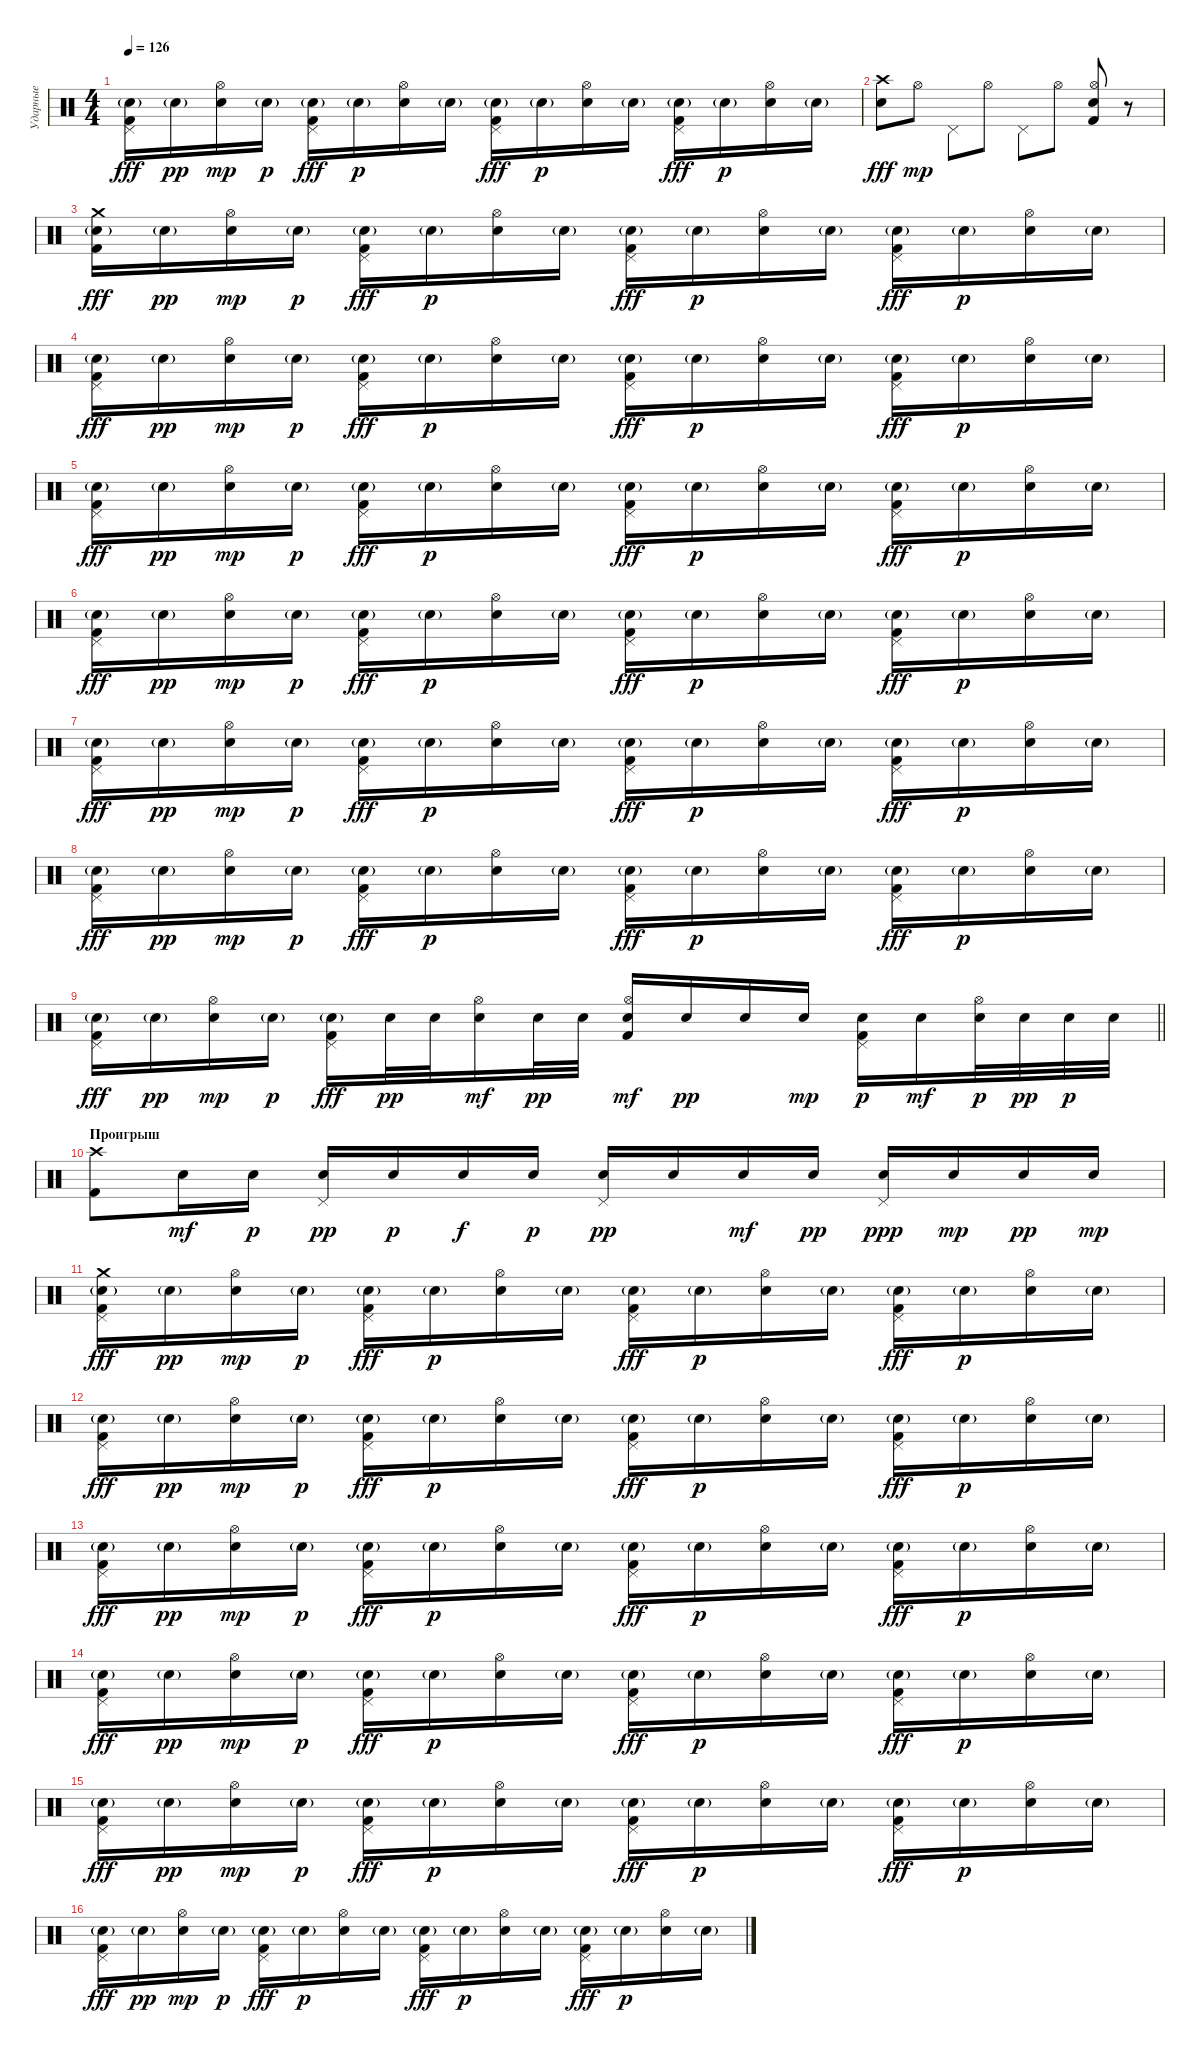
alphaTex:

\track ("Ударные" "Ударные") {instrument percussion}
\staff {score}
\articulation defaults
\ts (4 4)
\tempo 126
\clef neutral
\ks c
("Pedal Hi-Hat (hit)" "Snare (hit) 2"{g} "Kick (hit) 2").16{dy fff} "Snare (hit) 2"{g}.16{dy pp} ("Hi-Hat (open)" "Electric Snare (hit)").16{dy mp} "Snare (hit) 2"{g}.16{dy p} ("Pedal Hi-Hat (hit)" "Snare (hit) 2"{g} "Kick (hit) 2").16{dy fff} "Snare (hit) 2"{g}.16{dy p} ("Hi-Hat (open)" "Electric Snare (hit)").16 "Snare (hit) 2"{g}.16 ("Pedal Hi-Hat (hit)" "Snare (hit) 2"{g} "Kick (hit) 2").16{dy fff} "Snare (hit) 2"{g}.16{dy p} ("Hi-Hat (open)" "Electric Snare (hit)").16 "Snare (hit) 2"{g}.16 ("Pedal Hi-Hat (hit)" "Snare (hit) 2"{g} "Kick (hit) 2").16{dy fff} "Snare (hit) 2"{g}.16{dy p} ("Hi-Hat (open)" "Electric Snare (hit)").16 "Snare (hit) 2"{g}.16 |
("Crash high (hit)" "Electric Snare (hit)").8{dy fff} "Hi-Hat (open)".8{dy mp} "Pedal Hi-Hat (hit)".8 "Hi-Hat (open)".8 "Pedal Hi-Hat (hit)".8 "Hi-Hat (open)".8 ("Hi-Hat (open)" "Electric Snare (hit)" "Kick (hit) 2").8 r.8 |
("Crash medium (hit)" "Snare (hit) 2"{g} "Kick (hit) 2").16{dy fff} "Snare (hit) 2"{g}.16{dy pp} ("Hi-Hat (open)" "Electric Snare (hit)").16{dy mp} "Snare (hit) 2"{g}.16{dy p} ("Pedal Hi-Hat (hit)" "Snare (hit) 2"{g} "Kick (hit) 2").16{dy fff} "Snare (hit) 2"{g}.16{dy p} ("Hi-Hat (open)" "Electric Snare (hit)").16 "Snare (hit) 2"{g}.16 ("Pedal Hi-Hat (hit)" "Snare (hit) 2"{g} "Kick (hit) 2").16{dy fff} "Snare (hit) 2"{g}.16{dy p} ("Hi-Hat (open)" "Electric Snare (hit)").16 "Snare (hit) 2"{g}.16 ("Pedal Hi-Hat (hit)" "Snare (hit) 2"{g} "Kick (hit) 2").16{dy fff} "Snare (hit) 2"{g}.16{dy p} ("Hi-Hat (open)" "Electric Snare (hit)").16 "Snare (hit) 2"{g}.16 |
("Pedal Hi-Hat (hit)" "Snare (hit) 2"{g} "Kick (hit) 2").16{dy fff} "Snare (hit) 2"{g}.16{dy pp} ("Hi-Hat (open)" "Electric Snare (hit)").16{dy mp} "Snare (hit) 2"{g}.16{dy p} ("Pedal Hi-Hat (hit)" "Snare (hit) 2"{g} "Kick (hit) 2").16{dy fff} "Snare (hit) 2"{g}.16{dy p} ("Hi-Hat (open)" "Electric Snare (hit)").16 "Snare (hit) 2"{g}.16 ("Pedal Hi-Hat (hit)" "Snare (hit) 2"{g} "Kick (hit) 2").16{dy fff} "Snare (hit) 2"{g}.16{dy p} ("Hi-Hat (open)" "Electric Snare (hit)").16 "Snare (hit) 2"{g}.16 ("Pedal Hi-Hat (hit)" "Snare (hit) 2"{g} "Kick (hit) 2").16{dy fff} "Snare (hit) 2"{g}.16{dy p} ("Hi-Hat (open)" "Electric Snare (hit)").16 "Snare (hit) 2"{g}.16 |
("Pedal Hi-Hat (hit)" "Snare (hit) 2"{g} "Kick (hit) 2").16{dy fff} "Snare (hit) 2"{g}.16{dy pp} ("Hi-Hat (open)" "Electric Snare (hit)").16{dy mp} "Snare (hit) 2"{g}.16{dy p} ("Pedal Hi-Hat (hit)" "Snare (hit) 2"{g} "Kick (hit) 2").16{dy fff} "Snare (hit) 2"{g}.16{dy p} ("Hi-Hat (open)" "Electric Snare (hit)").16 "Snare (hit) 2"{g}.16 ("Pedal Hi-Hat (hit)" "Snare (hit) 2"{g} "Kick (hit) 2").16{dy fff} "Snare (hit) 2"{g}.16{dy p} ("Hi-Hat (open)" "Electric Snare (hit)").16 "Snare (hit) 2"{g}.16 ("Pedal Hi-Hat (hit)" "Snare (hit) 2"{g} "Kick (hit) 2").16{dy fff} "Snare (hit) 2"{g}.16{dy p} ("Hi-Hat (open)" "Electric Snare (hit)").16 "Snare (hit) 2"{g}.16 |
("Pedal Hi-Hat (hit)" "Snare (hit) 2"{g} "Kick (hit) 2").16{dy fff} "Snare (hit) 2"{g}.16{dy pp} ("Hi-Hat (open)" "Electric Snare (hit)").16{dy mp} "Snare (hit) 2"{g}.16{dy p} ("Pedal Hi-Hat (hit)" "Snare (hit) 2"{g} "Kick (hit) 2").16{dy fff} "Snare (hit) 2"{g}.16{dy p} ("Hi-Hat (open)" "Electric Snare (hit)").16 "Snare (hit) 2"{g}.16 ("Pedal Hi-Hat (hit)" "Snare (hit) 2"{g} "Kick (hit) 2").16{dy fff} "Snare (hit) 2"{g}.16{dy p} ("Hi-Hat (open)" "Electric Snare (hit)").16 "Snare (hit) 2"{g}.16 ("Pedal Hi-Hat (hit)" "Snare (hit) 2"{g} "Kick (hit) 2").16{dy fff} "Snare (hit) 2"{g}.16{dy p} ("Hi-Hat (open)" "Electric Snare (hit)").16 "Snare (hit) 2"{g}.16 |
("Pedal Hi-Hat (hit)" "Snare (hit) 2"{g} "Kick (hit) 2").16{dy fff} "Snare (hit) 2"{g}.16{dy pp} ("Hi-Hat (open)" "Electric Snare (hit)").16{dy mp} "Snare (hit) 2"{g}.16{dy p} ("Pedal Hi-Hat (hit)" "Snare (hit) 2"{g} "Kick (hit) 2").16{dy fff} "Snare (hit) 2"{g}.16{dy p} ("Hi-Hat (open)" "Electric Snare (hit)").16 "Snare (hit) 2"{g}.16 ("Pedal Hi-Hat (hit)" "Snare (hit) 2"{g} "Kick (hit) 2").16{dy fff} "Snare (hit) 2"{g}.16{dy p} ("Hi-Hat (open)" "Electric Snare (hit)").16 "Snare (hit) 2"{g}.16 ("Pedal Hi-Hat (hit)" "Snare (hit) 2"{g} "Kick (hit) 2").16{dy fff} "Snare (hit) 2"{g}.16{dy p} ("Hi-Hat (open)" "Electric Snare (hit)").16 "Snare (hit) 2"{g}.16 |
("Pedal Hi-Hat (hit)" "Snare (hit) 2"{g} "Kick (hit) 2").16{dy fff} "Snare (hit) 2"{g}.16{dy pp} ("Hi-Hat (open)" "Electric Snare (hit)").16{dy mp} "Snare (hit) 2"{g}.16{dy p} ("Pedal Hi-Hat (hit)" "Snare (hit) 2"{g} "Kick (hit) 2").16{dy fff} "Snare (hit) 2"{g}.16{dy p} ("Hi-Hat (open)" "Electric Snare (hit)").16 "Snare (hit) 2"{g}.16 ("Pedal Hi-Hat (hit)" "Snare (hit) 2"{g} "Kick (hit) 2").16{dy fff} "Snare (hit) 2"{g}.16{dy p} ("Hi-Hat (open)" "Electric Snare (hit)").16 "Snare (hit) 2"{g}.16 ("Pedal Hi-Hat (hit)" "Snare (hit) 2"{g} "Kick (hit) 2").16{dy fff} "Snare (hit) 2"{g}.16{dy p} ("Hi-Hat (open)" "Electric Snare (hit)").16 "Snare (hit) 2"{g}.16 |
\barLineRight lightlight
("Pedal Hi-Hat (hit)" "Snare (hit) 2"{g} "Kick (hit) 2").16{dy fff} "Snare (hit) 2"{g}.16{dy pp} ("Hi-Hat (open)" "Electric Snare (hit)").16{dy mp} "Snare (hit) 2"{g}.16{dy p} ("Pedal Hi-Hat (hit)" "Snare (hit) 2"{g} "Kick (hit) 2").16{dy fff} "Electric Snare (hit)".32{dy pp} "Snare (hit) 2".32 ("Hi-Hat (open)" "Electric Snare (hit)").16{dy mf} "Electric Snare (hit)".32{dy pp} "Snare (hit) 2".32 ("Hi-Hat (open)" "Electric Snare (hit)" "Kick (hit) 2").16{dy mf} "Electric Snare (hit)".16{dy pp} "Electric Snare (hit)".16 "Electric Snare (hit)".16{dy mp} ("Pedal Hi-Hat (hit)" "Electric Snare (hit)" "Kick (hit) 2").16{dy p} "Electric Snare (hit)".16{dy mf} ("Hi-Hat (open)" "Electric Snare (hit)").32{dy p} "Electric Snare (hit)".32{dy pp} "Electric Snare (hit)".32{dy p} "Electric Snare (hit)".32 |
\section ("" "Проигрыш")
("Crash high (hit)" "Kick (hit) 2").8 "Electric Snare (hit)".16{dy mf} "Snare (hit) 2".16{dy p} ("Pedal Hi-Hat (hit)" "Snare (hit) 2").16{dy pp} "Snare (hit) 2".16{dy p} "Electric Snare (hit)".16{dy f} "Snare (hit) 2".16{dy p} ("Pedal Hi-Hat (hit)" "Snare (hit) 2").16{dy pp} "Snare (hit) 2".16 "Electric Snare (hit)".16{dy mf} "Snare (hit) 2".16{dy pp} ("Pedal Hi-Hat (hit)" "Snare (hit) 2").16{dy ppp} "Snare (hit) 2".16{dy mp} "Electric Snare (hit)".16{dy pp} "Snare (hit) 2".16{dy mp} |
("Crash medium (hit)" "Pedal Hi-Hat (hit)" "Snare (hit) 2"{g} "Kick (hit) 2").16{dy fff} "Snare (hit) 2"{g}.16{dy pp} ("Hi-Hat (open)" "Electric Snare (hit)").16{dy mp} "Snare (hit) 2"{g}.16{dy p} ("Pedal Hi-Hat (hit)" "Snare (hit) 2"{g} "Kick (hit) 2").16{dy fff} "Snare (hit) 2"{g}.16{dy p} ("Hi-Hat (open)" "Electric Snare (hit)").16 "Snare (hit) 2"{g}.16 ("Pedal Hi-Hat (hit)" "Snare (hit) 2"{g} "Kick (hit) 2").16{dy fff} "Snare (hit) 2"{g}.16{dy p} ("Hi-Hat (open)" "Electric Snare (hit)").16 "Snare (hit) 2"{g}.16 ("Pedal Hi-Hat (hit)" "Snare (hit) 2"{g} "Kick (hit) 2").16{dy fff} "Snare (hit) 2"{g}.16{dy p} ("Hi-Hat (open)" "Electric Snare (hit)").16 "Snare (hit) 2"{g}.16 |
("Pedal Hi-Hat (hit)" "Snare (hit) 2"{g} "Kick (hit) 2").16{dy fff} "Snare (hit) 2"{g}.16{dy pp} ("Hi-Hat (open)" "Electric Snare (hit)").16{dy mp} "Snare (hit) 2"{g}.16{dy p} ("Pedal Hi-Hat (hit)" "Snare (hit) 2"{g} "Kick (hit) 2").16{dy fff} "Snare (hit) 2"{g}.16{dy p} ("Hi-Hat (open)" "Electric Snare (hit)").16 "Snare (hit) 2"{g}.16 ("Pedal Hi-Hat (hit)" "Snare (hit) 2"{g} "Kick (hit) 2").16{dy fff} "Snare (hit) 2"{g}.16{dy p} ("Hi-Hat (open)" "Electric Snare (hit)").16 "Snare (hit) 2"{g}.16 ("Pedal Hi-Hat (hit)" "Snare (hit) 2"{g} "Kick (hit) 2").16{dy fff} "Snare (hit) 2"{g}.16{dy p} ("Hi-Hat (open)" "Electric Snare (hit)").16 "Snare (hit) 2"{g}.16 |
("Pedal Hi-Hat (hit)" "Snare (hit) 2"{g} "Kick (hit) 2").16{dy fff} "Snare (hit) 2"{g}.16{dy pp} ("Hi-Hat (open)" "Electric Snare (hit)").16{dy mp} "Snare (hit) 2"{g}.16{dy p} ("Pedal Hi-Hat (hit)" "Snare (hit) 2"{g} "Kick (hit) 2").16{dy fff} "Snare (hit) 2"{g}.16{dy p} ("Hi-Hat (open)" "Electric Snare (hit)").16 "Snare (hit) 2"{g}.16 ("Pedal Hi-Hat (hit)" "Snare (hit) 2"{g} "Kick (hit) 2").16{dy fff} "Snare (hit) 2"{g}.16{dy p} ("Hi-Hat (open)" "Electric Snare (hit)").16 "Snare (hit) 2"{g}.16 ("Pedal Hi-Hat (hit)" "Snare (hit) 2"{g} "Kick (hit) 2").16{dy fff} "Snare (hit) 2"{g}.16{dy p} ("Hi-Hat (open)" "Electric Snare (hit)").16 "Snare (hit) 2"{g}.16 |
("Pedal Hi-Hat (hit)" "Snare (hit) 2"{g} "Kick (hit) 2").16{dy fff} "Snare (hit) 2"{g}.16{dy pp} ("Hi-Hat (open)" "Electric Snare (hit)").16{dy mp} "Snare (hit) 2"{g}.16{dy p} ("Pedal Hi-Hat (hit)" "Snare (hit) 2"{g} "Kick (hit) 2").16{dy fff} "Snare (hit) 2"{g}.16{dy p} ("Hi-Hat (open)" "Electric Snare (hit)").16 "Snare (hit) 2"{g}.16 ("Pedal Hi-Hat (hit)" "Snare (hit) 2"{g} "Kick (hit) 2").16{dy fff} "Snare (hit) 2"{g}.16{dy p} ("Hi-Hat (open)" "Electric Snare (hit)").16 "Snare (hit) 2"{g}.16 ("Pedal Hi-Hat (hit)" "Snare (hit) 2"{g} "Kick (hit) 2").16{dy fff} "Snare (hit) 2"{g}.16{dy p} ("Hi-Hat (open)" "Electric Snare (hit)").16 "Snare (hit) 2"{g}.16 |
("Pedal Hi-Hat (hit)" "Snare (hit) 2"{g} "Kick (hit) 2").16{dy fff} "Snare (hit) 2"{g}.16{dy pp} ("Hi-Hat (open)" "Electric Snare (hit)").16{dy mp} "Snare (hit) 2"{g}.16{dy p} ("Pedal Hi-Hat (hit)" "Snare (hit) 2"{g} "Kick (hit) 2").16{dy fff} "Snare (hit) 2"{g}.16{dy p} ("Hi-Hat (open)" "Electric Snare (hit)").16 "Snare (hit) 2"{g}.16 ("Pedal Hi-Hat (hit)" "Snare (hit) 2"{g} "Kick (hit) 2").16{dy fff} "Snare (hit) 2"{g}.16{dy p} ("Hi-Hat (open)" "Electric Snare (hit)").16 "Snare (hit) 2"{g}.16 ("Pedal Hi-Hat (hit)" "Snare (hit) 2"{g} "Kick (hit) 2").16{dy fff} "Snare (hit) 2"{g}.16{dy p} ("Hi-Hat (open)" "Electric Snare (hit)").16 "Snare (hit) 2"{g}.16 |
("Pedal Hi-Hat (hit)" "Snare (hit) 2"{g} "Kick (hit) 2").16{dy fff} "Snare (hit) 2"{g}.16{dy pp} ("Hi-Hat (open)" "Electric Snare (hit)").16{dy mp} "Snare (hit) 2"{g}.16{dy p} ("Pedal Hi-Hat (hit)" "Snare (hit) 2"{g} "Kick (hit) 2").16{dy fff} "Snare (hit) 2"{g}.16{dy p} ("Hi-Hat (open)" "Electric Snare (hit)").16 "Snare (hit) 2"{g}.16 ("Pedal Hi-Hat (hit)" "Snare (hit) 2"{g} "Kick (hit) 2").16{dy fff} "Snare (hit) 2"{g}.16{dy p} ("Hi-Hat (open)" "Electric Snare (hit)").16 "Snare (hit) 2"{g}.16 ("Pedal Hi-Hat (hit)" "Snare (hit) 2"{g} "Kick (hit) 2").16{dy fff} "Snare (hit) 2"{g}.16{dy p} ("Hi-Hat (open)" "Electric Snare (hit)").16 "Snare (hit) 2"{g}.16
